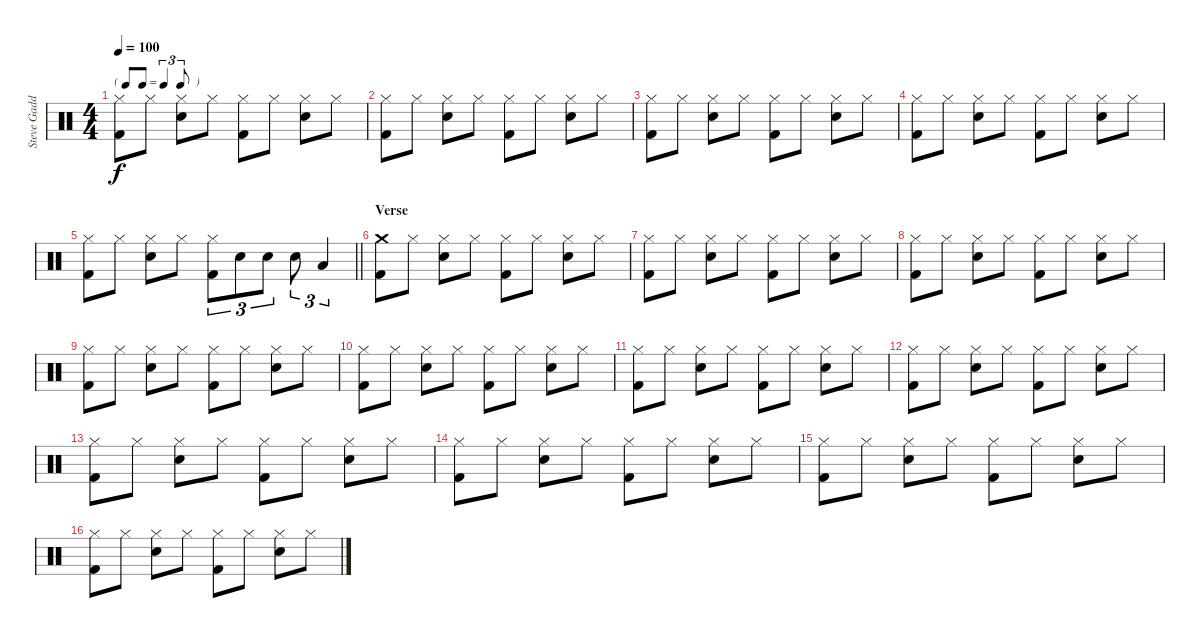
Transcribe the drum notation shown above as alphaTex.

\track ("Steve Gadd Drums" "Steve Gadd") {instrument percussion}
\staff {score}
\articulation defaults
\ts (4 4)
\tf triplet8th
\tempo 100
\clef neutral
\ks c
("Hi-Hat (closed)" "Kick (hit) 2").8{dy f} "Hi-Hat (closed)".8 ("Hi-Hat (closed)" "Snare (hit) 2").8 "Hi-Hat (closed)".8 ("Hi-Hat (closed)" "Kick (hit) 2").8 "Hi-Hat (closed)".8 ("Hi-Hat (closed)" "Snare (hit) 2").8 "Hi-Hat (closed)".8 |
("Hi-Hat (closed)" "Kick (hit) 2").8 "Hi-Hat (closed)".8 ("Hi-Hat (closed)" "Snare (hit) 2").8 "Hi-Hat (closed)".8 ("Hi-Hat (closed)" "Kick (hit) 2").8 "Hi-Hat (closed)".8 ("Hi-Hat (closed)" "Snare (hit) 2").8 "Hi-Hat (closed)".8 |
("Hi-Hat (closed)" "Kick (hit) 2").8 "Hi-Hat (closed)".8 ("Hi-Hat (closed)" "Snare (hit) 2").8 "Hi-Hat (closed)".8 ("Hi-Hat (closed)" "Kick (hit) 2").8 "Hi-Hat (closed)".8 ("Hi-Hat (closed)" "Snare (hit) 2").8 "Hi-Hat (closed)".8 |
("Hi-Hat (closed)" "Kick (hit) 2").8 "Hi-Hat (closed)".8 ("Hi-Hat (closed)" "Snare (hit) 2").8 "Hi-Hat (closed)".8 ("Hi-Hat (closed)" "Kick (hit) 2").8 "Hi-Hat (closed)".8 ("Hi-Hat (closed)" "Snare (hit) 2").8 "Hi-Hat (closed)".8 |
\barLineRight lightlight
("Hi-Hat (closed)" "Kick (hit) 2").8 "Hi-Hat (closed)".8 ("Hi-Hat (closed)" "Snare (hit) 2").8 "Hi-Hat (closed)".8 ("Hi-Hat (closed)" "Kick (hit) 2").8{tu (3 2)} "Snare (hit) 2".8{tu (3 2)} "Snare (hit) 2".8{tu (3 2)} "Snare (hit) 2".8{tu (3 2)} "Low Tom (hit)".4{tu (3 2)} |
\section ("" "Verse")
("Crash medium (hit)" "Kick (hit) 2").8 "Hi-Hat (closed)".8 ("Hi-Hat (closed)" "Snare (hit) 2").8 "Hi-Hat (closed)".8 ("Hi-Hat (closed)" "Kick (hit) 2").8 "Hi-Hat (closed)".8 ("Hi-Hat (closed)" "Snare (hit) 2").8 "Hi-Hat (closed)".8 |
("Hi-Hat (closed)" "Kick (hit) 2").8 "Hi-Hat (closed)".8 ("Hi-Hat (closed)" "Snare (hit) 2").8 "Hi-Hat (closed)".8 ("Hi-Hat (closed)" "Kick (hit) 2").8 "Hi-Hat (closed)".8 ("Hi-Hat (closed)" "Snare (hit) 2").8 "Hi-Hat (closed)".8 |
("Hi-Hat (closed)" "Kick (hit) 2").8 "Hi-Hat (closed)".8 ("Hi-Hat (closed)" "Snare (hit) 2").8 "Hi-Hat (closed)".8 ("Hi-Hat (closed)" "Kick (hit) 2").8 "Hi-Hat (closed)".8 ("Hi-Hat (closed)" "Snare (hit) 2").8 "Hi-Hat (closed)".8 |
("Hi-Hat (closed)" "Kick (hit) 2").8 "Hi-Hat (closed)".8 ("Hi-Hat (closed)" "Snare (hit) 2").8 "Hi-Hat (closed)".8 ("Hi-Hat (closed)" "Kick (hit) 2").8 "Hi-Hat (closed)".8 ("Hi-Hat (closed)" "Snare (hit) 2").8 "Hi-Hat (closed)".8 |
("Hi-Hat (closed)" "Kick (hit) 2").8 "Hi-Hat (closed)".8 ("Hi-Hat (closed)" "Snare (hit) 2").8 "Hi-Hat (closed)".8 ("Hi-Hat (closed)" "Kick (hit) 2").8 "Hi-Hat (closed)".8 ("Hi-Hat (closed)" "Snare (hit) 2").8 "Hi-Hat (closed)".8 |
("Hi-Hat (closed)" "Kick (hit) 2").8 "Hi-Hat (closed)".8 ("Hi-Hat (closed)" "Snare (hit) 2").8 "Hi-Hat (closed)".8 ("Hi-Hat (closed)" "Kick (hit) 2").8 "Hi-Hat (closed)".8 ("Hi-Hat (closed)" "Snare (hit) 2").8 "Hi-Hat (closed)".8 |
("Hi-Hat (closed)" "Kick (hit) 2").8 "Hi-Hat (closed)".8 ("Hi-Hat (closed)" "Snare (hit) 2").8 "Hi-Hat (closed)".8 ("Hi-Hat (closed)" "Kick (hit) 2").8 "Hi-Hat (closed)".8 ("Hi-Hat (closed)" "Snare (hit) 2").8 "Hi-Hat (closed)".8 |
("Hi-Hat (closed)" "Kick (hit) 2").8 "Hi-Hat (closed)".8 ("Hi-Hat (closed)" "Snare (hit) 2").8 "Hi-Hat (closed)".8 ("Hi-Hat (closed)" "Kick (hit) 2").8 "Hi-Hat (closed)".8 ("Hi-Hat (closed)" "Snare (hit) 2").8 "Hi-Hat (closed)".8 |
("Hi-Hat (closed)" "Kick (hit) 2").8 "Hi-Hat (closed)".8 ("Hi-Hat (closed)" "Snare (hit) 2").8 "Hi-Hat (closed)".8 ("Hi-Hat (closed)" "Kick (hit) 2").8 "Hi-Hat (closed)".8 ("Hi-Hat (closed)" "Snare (hit) 2").8 "Hi-Hat (closed)".8 |
("Hi-Hat (closed)" "Kick (hit) 2").8 "Hi-Hat (closed)".8 ("Hi-Hat (closed)" "Snare (hit) 2").8 "Hi-Hat (closed)".8 ("Hi-Hat (closed)" "Kick (hit) 2").8 "Hi-Hat (closed)".8 ("Hi-Hat (closed)" "Snare (hit) 2").8 "Hi-Hat (closed)".8 |
("Hi-Hat (closed)" "Kick (hit) 2").8 "Hi-Hat (closed)".8 ("Hi-Hat (closed)" "Snare (hit) 2").8 "Hi-Hat (closed)".8 ("Hi-Hat (closed)" "Kick (hit) 2").8 "Hi-Hat (closed)".8 ("Hi-Hat (closed)" "Snare (hit) 2").8 "Hi-Hat (closed)".8
